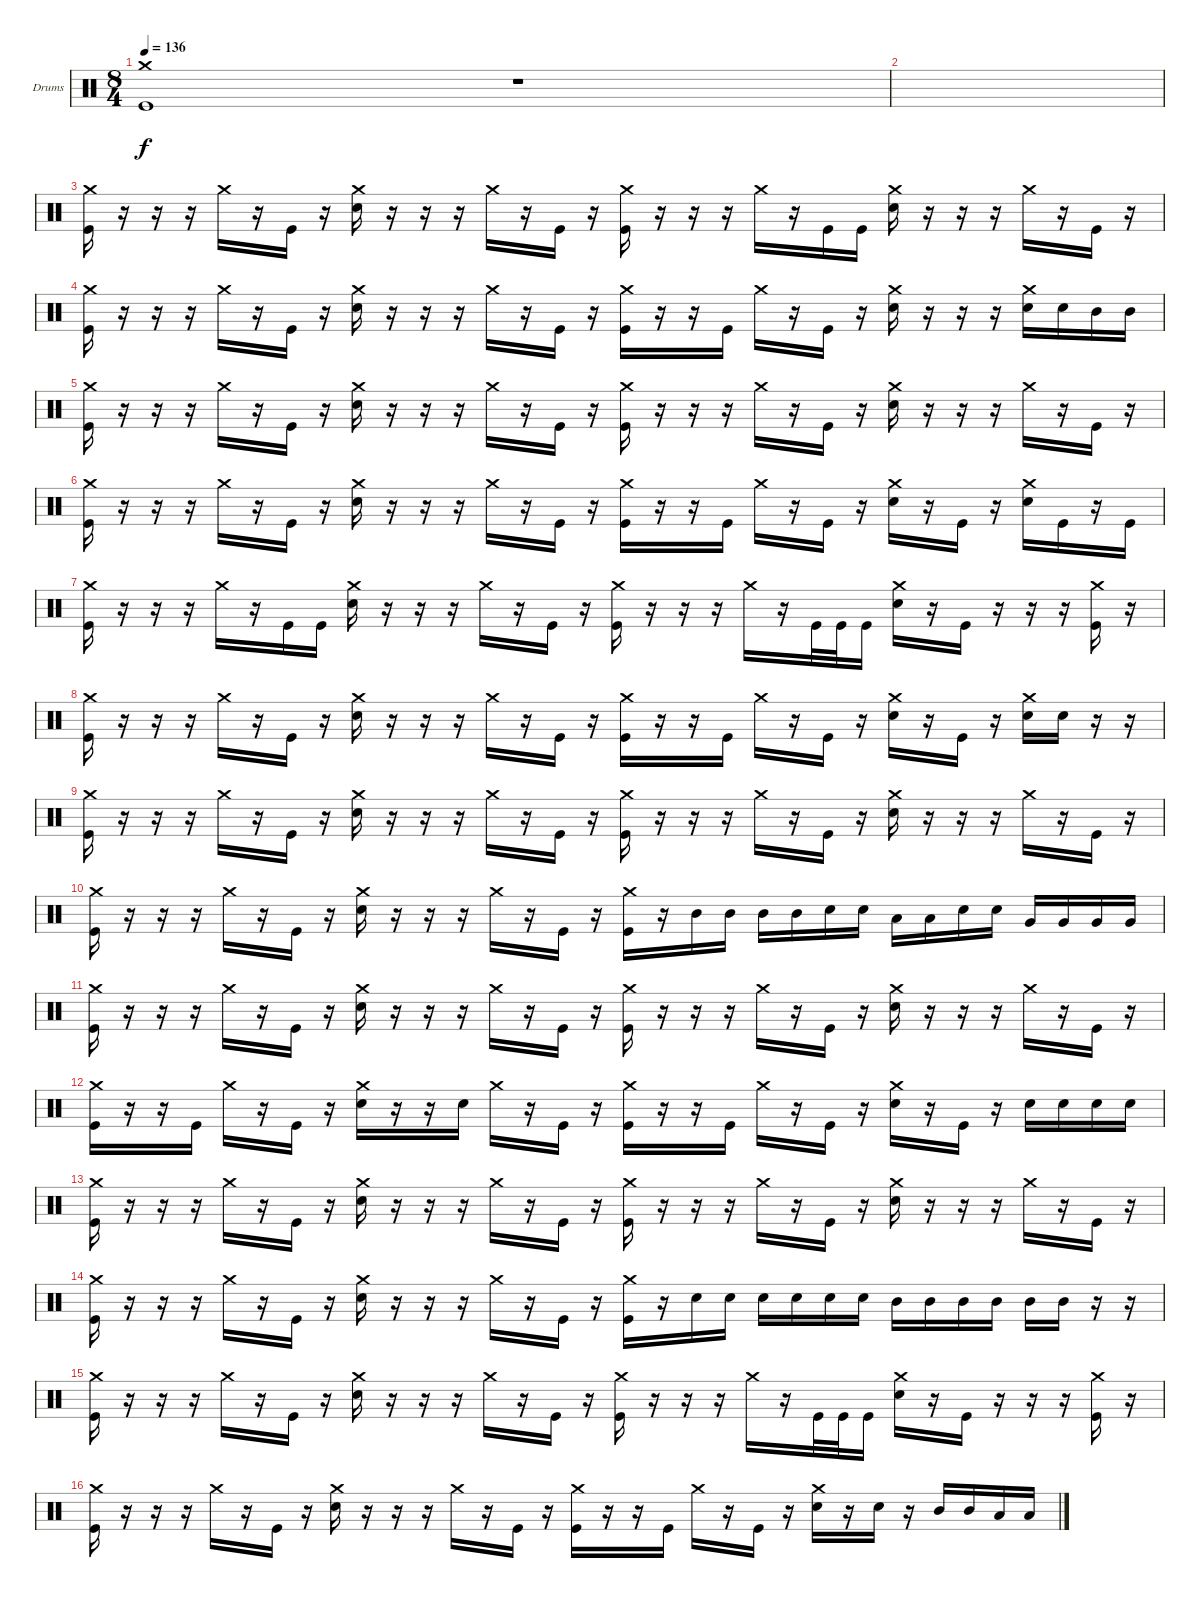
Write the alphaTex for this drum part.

\defaultSystemsLayout 4
\bracketExtendMode groupsimilarinstruments
\firstSystemTrackNameOrientation horizontal
\otherSystemsTrackNameOrientation horizontal
\track ("Drumkit" "Drums") {instrument percussion}
\staff {score}
\articulation defaults
\ts (8 4)
\tempo 136
\clef neutral
\ks c
("Kick (hit)" "Crash medium (hit)").1{dy f} r.1 |
\scale
0.507955 |
\scale
0.492968 ("Kick (hit)" "Crash medium (hit)").16 r.16 r.16 r.16 "Crash medium (hit)".16 r.16 "Kick (hit)".16 r.16 ("Snare (hit) 2" "Crash medium (hit)").16 r.16 r.16 r.16 "Crash medium (hit)".16 r.16 "Kick (hit)".16 r.16 ("Kick (hit)" "Crash medium (hit)").16 r.16 r.16 r.16 "Crash medium (hit)".16 r.16 "Kick (hit)".16 "Kick (hit)".16 ("Snare (hit) 2" "Crash medium (hit)").16 r.16 r.16 r.16 "Crash medium (hit)".16 r.16 "Kick (hit)".16 r.16 |
\scale
0.510881 ("Kick (hit)" "Crash medium (hit)").16 r.16 r.16 r.16 "Crash medium (hit)".16 r.16 "Kick (hit)".16 r.16 ("Snare (hit) 2" "Crash medium (hit)").16 r.16 r.16 r.16 "Crash medium (hit)".16 r.16 "Kick (hit)".16 r.16 ("Kick (hit)" "Crash medium (hit)").16 r.16 r.16 "Kick (hit)".16 "Crash medium (hit)".16 r.16 "Kick (hit)".16 r.16 ("Snare (hit) 2" "Crash medium (hit)").16 r.16 r.16 r.16 ("Crash medium (hit)" "Snare (hit) 2").16 "Snare (hit) 2".16 "Mid Tom (hit)".16 "Mid Tom (hit)".16 |
\scale
0.489119 ("Kick (hit)" "Crash medium (hit)").16 r.16 r.16 r.16 "Crash medium (hit)".16 r.16 "Kick (hit)".16 r.16 ("Snare (hit) 2" "Crash medium (hit)").16 r.16 r.16 r.16 "Crash medium (hit)".16 r.16 "Kick (hit)".16 r.16 ("Kick (hit)" "Crash medium (hit)").16 r.16 r.16 r.16 "Crash medium (hit)".16 r.16 "Kick (hit)".16 r.16 ("Snare (hit) 2" "Crash medium (hit)").16 r.16 r.16 r.16 "Crash medium (hit)".16 r.16 "Kick (hit)".16 r.16 |
("Kick (hit)" "Crash medium (hit)").16 r.16 r.16 r.16 "Crash medium (hit)".16 r.16 "Kick (hit)".16 r.16 ("Snare (hit) 2" "Crash medium (hit)").16 r.16 r.16 r.16 "Crash medium (hit)".16 r.16 "Kick (hit)".16 r.16 ("Kick (hit)" "Crash medium (hit)").16 r.16 r.16 "Kick (hit)".16 "Crash medium (hit)".16 r.16 "Kick (hit)".16 r.16 ("Snare (hit) 2" "Crash medium (hit)").16 r.16 "Kick (hit)".16 r.16 ("Crash medium (hit)" "Snare (hit) 2").16 "Kick (hit)".16 r.16 "Kick (hit)".16 |
("Kick (hit)" "Crash medium (hit)").16 r.16 r.16 r.16 "Crash medium (hit)".16 r.16 "Kick (hit)".16 "Kick (hit)".16 ("Snare (hit) 2" "Crash medium (hit)").16 r.16 r.16 r.16 "Crash medium (hit)".16 r.16 "Kick (hit)".16 r.16 ("Kick (hit)" "Crash medium (hit)").16 r.16 r.16 r.16 "Crash medium (hit)".16 r.16 "Kick (hit)".32 "Kick (hit)".32 "Kick (hit)".16 ("Snare (hit) 2" "Crash medium (hit)").16 r.16 "Kick (hit)".16 r.16 r.16 r.16 ("Kick (hit)" "Crash medium (hit)").16 r.16 |
("Kick (hit)" "Crash medium (hit)").16 r.16 r.16 r.16 "Crash medium (hit)".16 r.16 "Kick (hit)".16 r.16 ("Snare (hit) 2" "Crash medium (hit)").16 r.16 r.16 r.16 "Crash medium (hit)".16 r.16 "Kick (hit)".16 r.16 ("Kick (hit)" "Crash medium (hit)").16 r.16 r.16 "Kick (hit)".16 "Crash medium (hit)".16 r.16 "Kick (hit)".16 r.16 ("Snare (hit) 2" "Crash medium (hit)").16 r.16 "Kick (hit)".16 r.16 ("Crash medium (hit)" "Snare (hit) 2").16 "Snare (hit) 2".16 r.16 r.16 |
("Kick (hit)" "Crash medium (hit)").16 r.16 r.16 r.16 "Crash medium (hit)".16 r.16 "Kick (hit)".16 r.16 ("Snare (hit) 2" "Crash medium (hit)").16 r.16 r.16 r.16 "Crash medium (hit)".16 r.16 "Kick (hit)".16 r.16 ("Kick (hit)" "Crash medium (hit)").16 r.16 r.16 r.16 "Crash medium (hit)".16 r.16 "Kick (hit)".16 r.16 ("Snare (hit) 2" "Crash medium (hit)").16 r.16 r.16 r.16 "Crash medium (hit)".16 r.16 "Kick (hit)".16 r.16 |
\scale
0.512251 ("Kick (hit)" "Crash medium (hit)").16 r.16 r.16 r.16 "Crash medium (hit)".16 r.16 "Kick (hit)".16 r.16 ("Snare (hit) 2" "Crash medium (hit)").16 r.16 r.16 r.16 "Crash medium (hit)".16 r.16 "Kick (hit)".16 r.16 ("Kick (hit)" "Crash medium (hit)").16 r.16 "Mid Tom (hit)".16 "Mid Tom (hit)".16 "Mid Tom (hit)".16 "Mid Tom (hit)".16 "Snare (hit) 2".16 "Snare (hit) 2".16 "Low Tom (hit)".16 "Low Tom (hit)".16 "Snare (hit) 2".16 "Snare (hit) 2".16 "Very Low Tom (hit)".16 "Very Low Tom (hit)".16 "Very Low Tom (hit)".16 "Very Low Tom (hit)".16 |
\scale
0.486815 ("Kick (hit)" "Crash medium (hit)").16 r.16 r.16 r.16 "Crash medium (hit)".16 r.16 "Kick (hit)".16 r.16 ("Snare (hit) 2" "Crash medium (hit)").16 r.16 r.16 r.16 "Crash medium (hit)".16 r.16 "Kick (hit)".16 r.16 ("Kick (hit)" "Crash medium (hit)").16 r.16 r.16 r.16 "Crash medium (hit)".16 r.16 "Kick (hit)".16 r.16 ("Snare (hit) 2" "Crash medium (hit)").16 r.16 r.16 r.16 "Crash medium (hit)".16 r.16 "Kick (hit)".16 r.16 |
\scale
0.513678 ("Kick (hit)" "Crash medium (hit)").16 r.16 r.16 "Kick (hit)".16 "Crash medium (hit)".16 r.16 "Kick (hit)".16 r.16 ("Snare (hit) 2" "Crash medium (hit)").16 r.16 r.16 "Snare (hit) 2".16 "Crash medium (hit)".16 r.16 "Kick (hit)".16 r.16 ("Kick (hit)" "Crash medium (hit)").16 r.16 r.16 "Kick (hit)".16 "Crash medium (hit)".16 r.16 "Kick (hit)".16 r.16 ("Snare (hit) 2" "Crash medium (hit)").16 r.16 "Kick (hit)".16 r.16 "Snare (hit) 2".16 "Snare (hit) 2".16 "Snare (hit) 2".16 "Snare (hit) 2".16 |
\scale
0.485391 ("Kick (hit)" "Crash medium (hit)").16 r.16 r.16 r.16 "Crash medium (hit)".16 r.16 "Kick (hit)".16 r.16 ("Snare (hit) 2" "Crash medium (hit)").16 r.16 r.16 r.16 "Crash medium (hit)".16 r.16 "Kick (hit)".16 r.16 ("Kick (hit)" "Crash medium (hit)").16 r.16 r.16 r.16 "Crash medium (hit)".16 r.16 "Kick (hit)".16 r.16 ("Snare (hit) 2" "Crash medium (hit)").16 r.16 r.16 r.16 "Crash medium (hit)".16 r.16 "Kick (hit)".16 r.16 |
\scale
0.515105 ("Kick (hit)" "Crash medium (hit)").16 r.16 r.16 r.16 "Crash medium (hit)".16 r.16 "Kick (hit)".16 r.16 ("Snare (hit) 2" "Crash medium (hit)").16 r.16 r.16 r.16 "Crash medium (hit)".16 r.16 "Kick (hit)".16 r.16 ("Kick (hit)" "Crash medium (hit)").16 r.16 "Snare (hit) 2".16 "Snare (hit) 2".16 "Snare (hit) 2".16 "Snare (hit) 2".16 "Snare (hit) 2".16 "Snare (hit) 2".16 "Mid Tom (hit)".16 "Mid Tom (hit)".16 "Mid Tom (hit)".16 "Mid Tom (hit)".16 "Mid Tom (hit)".16 "Mid Tom (hit)".16 r.16 r.16 |
\scale
0.483968 ("Kick (hit)" "Crash medium (hit)").16 r.16 r.16 r.16 "Crash medium (hit)".16 r.16 "Kick (hit)".16 r.16 ("Snare (hit) 2" "Crash medium (hit)").16 r.16 r.16 r.16 "Crash medium (hit)".16 r.16 "Kick (hit)".16 r.16 ("Kick (hit)" "Crash medium (hit)").16 r.16 r.16 r.16 "Crash medium (hit)".16 r.16 "Kick (hit)".32 "Kick (hit)".32 "Kick (hit)".16 ("Snare (hit) 2" "Crash medium (hit)").16 r.16 "Kick (hit)".16 r.16 r.16 r.16 ("Kick (hit)" "Crash medium (hit)").16 r.16 |
\scale
0.522239 ("Kick (hit)" "Crash medium (hit)").16 r.16 r.16 r.16 "Crash medium (hit)".16 r.16 "Kick (hit)".16 r.16 ("Snare (hit) 2" "Crash medium (hit)").16 r.16 r.16 r.16 "Crash medium (hit)".16 r.16 "Kick (hit)".16 r.16 ("Kick (hit)" "Crash medium (hit)").16 r.16 r.16 "Kick (hit)".16 "Crash medium (hit)".16 r.16 "Kick (hit)".16 r.16 ("Snare (hit) 2" "Crash medium (hit)").16 r.16 "Snare (hit) 2".16 r.16 "Mid Tom (hit)".16 "Mid Tom (hit)".16 "Low Tom (hit)".16 "Low Tom (hit)".16
